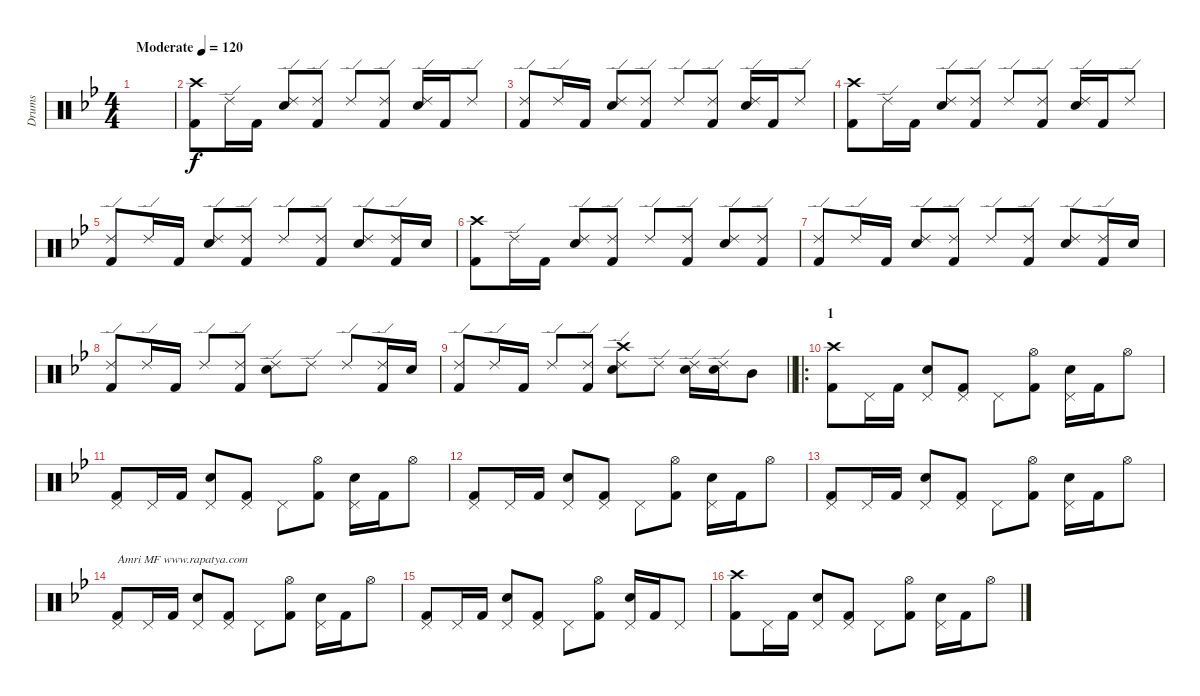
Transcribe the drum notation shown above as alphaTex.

\track ("Drums" "Drums") {instrument percussion}
\staff {score}
\articulation defaults
\ts (4 4)
\tempo (120 "Moderate")
\clef neutral
\ks bb
|
("Kick (hit) 2" "Crash high (hit)").8 "Ride (edge) 2".16 "Kick (hit) 2".16 ("Ride (edge) 2" "Electric Snare (hit)").8 ("Ride (edge) 2" "Kick (hit) 2").8 "Ride (edge) 2".8 ("Ride (edge) 2" "Kick (hit) 2").8 ("Ride (edge) 2" "Electric Snare (hit)").16 "Kick (hit) 2".16 "Ride (edge) 2".8 |
("Kick (hit) 2" "Ride (edge) 2").8 "Ride (edge) 2".16 "Kick (hit) 2".16 ("Ride (edge) 2" "Electric Snare (hit)").8 ("Ride (edge) 2" "Kick (hit) 2").8 "Ride (edge) 2".8 ("Ride (edge) 2" "Kick (hit) 2").8 ("Ride (edge) 2" "Electric Snare (hit)").16 "Kick (hit) 2".16 "Ride (edge) 2".8 |
("Kick (hit) 2" "Crash high (hit)").8 "Ride (edge) 2".16 "Kick (hit) 2".16 ("Ride (edge) 2" "Electric Snare (hit)").8 ("Ride (edge) 2" "Kick (hit) 2").8 "Ride (edge) 2".8 ("Ride (edge) 2" "Kick (hit) 2").8 ("Ride (edge) 2" "Electric Snare (hit)").16 "Kick (hit) 2".16 "Ride (edge) 2".8 |
("Kick (hit) 2" "Ride (edge) 2").8 "Ride (edge) 2".16 "Kick (hit) 2".16 ("Ride (edge) 2" "Electric Snare (hit)").8 ("Ride (edge) 2" "Kick (hit) 2").8 "Ride (edge) 2".8 ("Ride (edge) 2" "Kick (hit) 2").8 ("Ride (edge) 2" "Electric Snare (hit)").8 ("Kick (hit) 2" "Ride (edge) 2").16 "Electric Snare (hit)".16 |
("Kick (hit) 2" "Crash high (hit)").8 "Ride (edge) 2".16 "Kick (hit) 2".16 ("Ride (edge) 2" "Electric Snare (hit)").8 ("Ride (edge) 2" "Kick (hit) 2").8 "Ride (edge) 2".8 ("Ride (edge) 2" "Kick (hit) 2").8 ("Ride (edge) 2" "Electric Snare (hit)").8 ("Ride (edge) 2" "Kick (hit) 2").8 |
("Kick (hit) 2" "Ride (edge) 2").8 "Ride (edge) 2".16 "Kick (hit) 2".16 ("Ride (edge) 2" "Electric Snare (hit)").8 ("Ride (edge) 2" "Kick (hit) 2").8 "Ride (edge) 2".8 ("Ride (edge) 2" "Kick (hit) 2").8 ("Ride (edge) 2" "Electric Snare (hit)").8 ("Kick (hit) 2" "Ride (edge) 2").16 "Electric Snare (hit)".16 |
("Ride (edge) 2" "Kick (hit) 2").8 "Ride (edge) 2".16 "Kick (hit) 2".16 "Ride (edge) 2".8 ("Ride (edge) 2" "Kick (hit) 2").8 ("Ride (edge) 2" "Electric Snare (hit)").8 "Ride (edge) 2".8 "Ride (edge) 2".8 ("Ride (edge) 2" "Kick (hit) 2").16 "Electric Snare (hit)".16 |
\barLineRight lightlight
("Ride (edge) 2" "Kick (hit) 2").8 "Ride (edge) 2".16 "Kick (hit) 2".16 "Ride (edge) 2".8 ("Ride (edge) 2" "Kick (hit) 2").8 ("Ride (edge) 2" "Electric Snare (hit)" "Crash high (hit)").8 "Ride (edge) 2".8 ("Ride (edge) 2" "Electric Snare (hit)").16 ("Ride (edge) 2" "Electric Snare (hit)").16 "Mid Tom (hit)".8 |
\ro
\section ("" "1")
("Kick (hit) 2" "Crash high (hit)").8 "Pedal Hi-Hat (hit)".16 "Kick (hit) 2".16 ("Pedal Hi-Hat (hit)" "Electric Snare (hit)").8 ("Pedal Hi-Hat (hit)" "Kick (hit) 2").8 "Pedal Hi-Hat (hit)".8 ("Hi-Hat (open)" "Kick (hit) 2").8 ("Pedal Hi-Hat (hit)" "Electric Snare (hit)").16 "Kick (hit) 2".16 "Hi-Hat (open)".8 |
("Kick (hit) 2" "Pedal Hi-Hat (hit)").8 "Pedal Hi-Hat (hit)".16 "Kick (hit) 2".16 ("Pedal Hi-Hat (hit)" "Electric Snare (hit)").8 ("Pedal Hi-Hat (hit)" "Kick (hit) 2").8 "Pedal Hi-Hat (hit)".8 ("Hi-Hat (open)" "Kick (hit) 2").8 ("Pedal Hi-Hat (hit)" "Electric Snare (hit)").16 "Kick (hit) 2".16 "Hi-Hat (open)".8 |
("Kick (hit) 2" "Pedal Hi-Hat (hit)").8 "Pedal Hi-Hat (hit)".16 "Kick (hit) 2".16 ("Pedal Hi-Hat (hit)" "Electric Snare (hit)").8 ("Pedal Hi-Hat (hit)" "Kick (hit) 2").8 "Pedal Hi-Hat (hit)".8 ("Hi-Hat (open)" "Kick (hit) 2").8 ("Pedal Hi-Hat (hit)" "Electric Snare (hit)").16 "Kick (hit) 2".16 "Hi-Hat (open)".8 |
("Kick (hit) 2" "Pedal Hi-Hat (hit)").8 "Pedal Hi-Hat (hit)".16 "Kick (hit) 2".16 ("Pedal Hi-Hat (hit)" "Electric Snare (hit)").8 ("Pedal Hi-Hat (hit)" "Kick (hit) 2").8 "Pedal Hi-Hat (hit)".8 ("Hi-Hat (open)" "Kick (hit) 2").8 ("Pedal Hi-Hat (hit)" "Electric Snare (hit)").16 "Kick (hit) 2".16 "Hi-Hat (open)".8 |
("Kick (hit) 2" "Pedal Hi-Hat (hit)").8{txt "Amri MF www.rapatya.com"} "Pedal Hi-Hat (hit)".16 "Kick (hit) 2".16 ("Pedal Hi-Hat (hit)" "Electric Snare (hit)").8 ("Pedal Hi-Hat (hit)" "Kick (hit) 2").8 "Pedal Hi-Hat (hit)".8 ("Hi-Hat (open)" "Kick (hit) 2").8 ("Pedal Hi-Hat (hit)" "Electric Snare (hit)").16 "Kick (hit) 2".16 "Hi-Hat (open)".8 |
("Kick (hit) 2" "Pedal Hi-Hat (hit)").8 "Pedal Hi-Hat (hit)".16 "Kick (hit) 2".16 ("Pedal Hi-Hat (hit)" "Electric Snare (hit)").8 ("Pedal Hi-Hat (hit)" "Kick (hit) 2").8 "Pedal Hi-Hat (hit)".8 ("Hi-Hat (open)" "Kick (hit) 2").8 ("Pedal Hi-Hat (hit)" "Electric Snare (hit)").16 "Kick (hit) 2".16 "Pedal Hi-Hat (hit)".8 |
("Kick (hit) 2" "Crash high (hit)").8 "Pedal Hi-Hat (hit)".16 "Kick (hit) 2".16 ("Pedal Hi-Hat (hit)" "Electric Snare (hit)").8 ("Pedal Hi-Hat (hit)" "Kick (hit) 2").8 "Pedal Hi-Hat (hit)".8 ("Hi-Hat (open)" "Kick (hit) 2").8 ("Pedal Hi-Hat (hit)" "Electric Snare (hit)").16 "Kick (hit) 2".16 "Hi-Hat (open)".8
